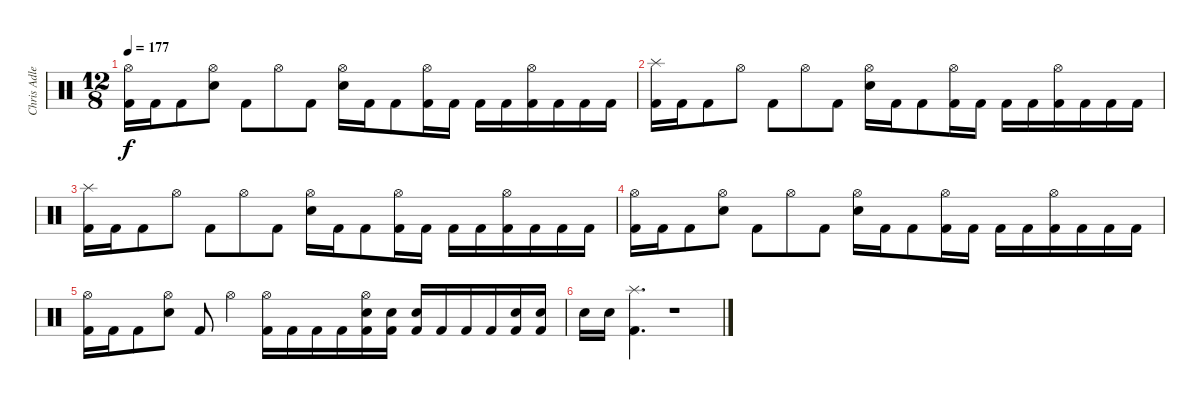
\track ("Chris Adler" "Chris Adle") {instrument percussion}
\staff {score}
\articulation defaults
\ts (12 8)
\tempo 177
\clef neutral
\ks c
("Hi-Hat (open)" "Kick (hit) 2").16{dy f} "Kick (hit) 2".16 "Kick (hit) 2".8 ("Hi-Hat (open)" "Snare (hit) 2").8 "Kick (hit) 2".8 "Hi-Hat (open)".8 "Kick (hit) 2".8 ("Hi-Hat (open)" "Snare (hit) 2").16 "Kick (hit) 2".16 "Kick (hit) 2".8 ("Hi-Hat (open)" "Kick (hit) 2").16 "Kick (hit) 2".16 "Kick (hit) 2".16 "Kick (hit) 2".16 ("Hi-Hat (open)" "Kick (hit) 2").16 "Kick (hit) 2".16 "Kick (hit) 2".16 "Kick (hit) 2".16 |
("Splash (hit)" "Kick (hit) 2").16 "Kick (hit) 2".16 "Kick (hit) 2".8 "Hi-Hat (open)".8 "Kick (hit) 2".8 "Hi-Hat (open)".8 "Kick (hit) 2".8 ("Hi-Hat (open)" "Snare (hit) 2").16 "Kick (hit) 2".16 "Kick (hit) 2".8 ("Hi-Hat (open)" "Kick (hit) 2").16 "Kick (hit) 2".16 "Kick (hit) 2".16 "Kick (hit) 2".16 ("Hi-Hat (open)" "Kick (hit) 2").16 "Kick (hit) 2".16 "Kick (hit) 2".16 "Kick (hit) 2".16 |
("Splash (hit)" "Kick (hit) 2").16 "Kick (hit) 2".16 "Kick (hit) 2".8 "Hi-Hat (open)".8 "Kick (hit) 2".8 "Hi-Hat (open)".8 "Kick (hit) 2".8 ("Hi-Hat (open)" "Snare (hit) 2").16 "Kick (hit) 2".16 "Kick (hit) 2".8 ("Hi-Hat (open)" "Kick (hit) 2").16 "Kick (hit) 2".16 "Kick (hit) 2".16 "Kick (hit) 2".16 ("Hi-Hat (open)" "Kick (hit) 2").16 "Kick (hit) 2".16 "Kick (hit) 2".16 "Kick (hit) 2".16 |
("Hi-Hat (open)" "Kick (hit) 2").16 "Kick (hit) 2".16 "Kick (hit) 2".8 ("Hi-Hat (open)" "Snare (hit) 2").8 "Kick (hit) 2".8 "Hi-Hat (open)".8 "Kick (hit) 2".8 ("Hi-Hat (open)" "Snare (hit) 2").16 "Kick (hit) 2".16 "Kick (hit) 2".8 ("Hi-Hat (open)" "Kick (hit) 2").16 "Kick (hit) 2".16 "Kick (hit) 2".16 "Kick (hit) 2".16 ("Hi-Hat (open)" "Kick (hit) 2").16 "Kick (hit) 2".16 "Kick (hit) 2".16 "Kick (hit) 2".16 |
("Hi-Hat (open)" "Kick (hit) 2").16 "Kick (hit) 2".16 "Kick (hit) 2".8 ("Hi-Hat (open)" "Snare (hit) 2").8 "Kick (hit) 2".8 "Hi-Hat (open)".4 ("Hi-Hat (open)" "Kick (hit) 2").16 "Kick (hit) 2".16 "Kick (hit) 2".16 "Kick (hit) 2".16 ("Hi-Hat (open)" "Snare (hit) 2" "Kick (hit) 2").16 ("Snare (hit) 2" "Kick (hit) 2").16 ("Snare (hit) 2" "Kick (hit) 2").16 "Kick (hit) 2".16 "Kick (hit) 2".16 "Kick (hit) 2".16 ("Snare (hit) 2" "Kick (hit) 2").16 ("Snare (hit) 2" "Kick (hit) 2").16 |
"Snare (hit) 2".16 "Snare (hit) 2".16 ("Splash (hit)" "Kick (hit) 2").4{d} r.1
